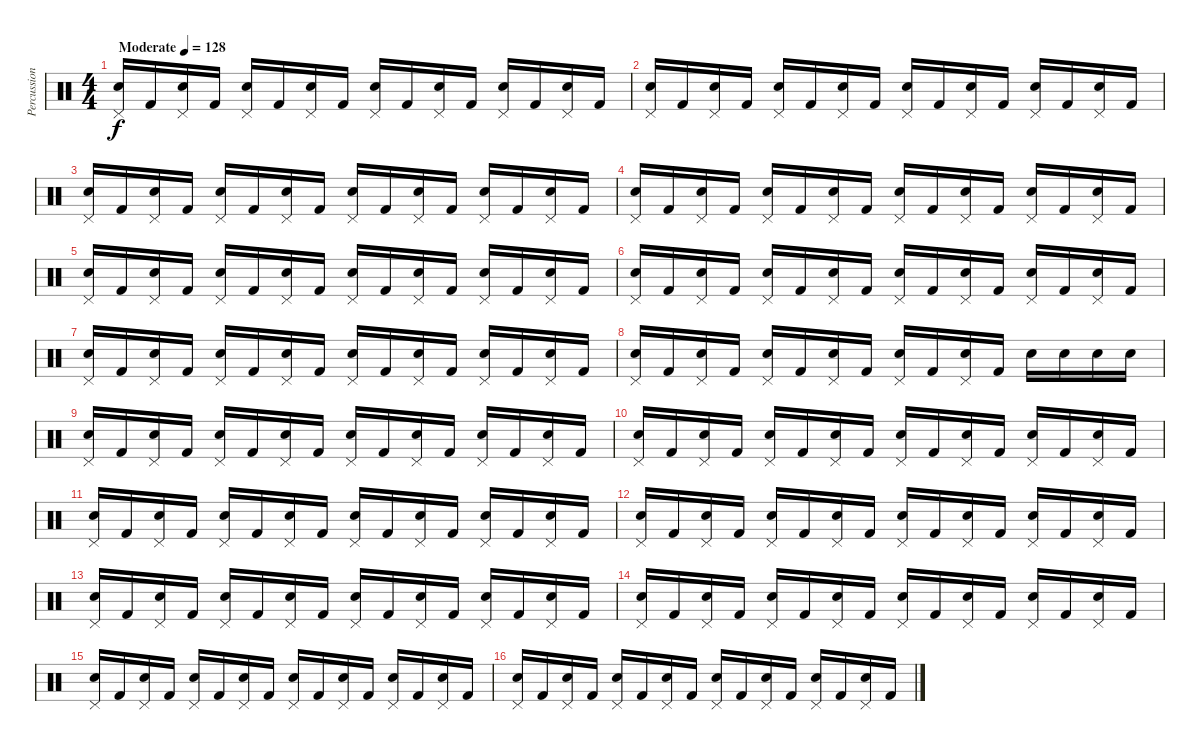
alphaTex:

\track ("Percussion" "Percussion") {instrument percussion}
\staff {score}
\articulation defaults
\ts (4 4)
\tempo (128 "Moderate")
\clef neutral
\ks c
("Pedal Hi-Hat (hit)" "Electric Snare (hit)").16{dy f} "Kick (hit) 2".16 ("Pedal Hi-Hat (hit)" "Electric Snare (hit)").16 "Kick (hit) 2".16 ("Pedal Hi-Hat (hit)" "Electric Snare (hit)").16 "Kick (hit) 2".16 ("Pedal Hi-Hat (hit)" "Electric Snare (hit)").16 "Kick (hit) 2".16 ("Pedal Hi-Hat (hit)" "Electric Snare (hit)").16 "Kick (hit) 2".16 ("Pedal Hi-Hat (hit)" "Electric Snare (hit)").16 "Kick (hit) 2".16 ("Pedal Hi-Hat (hit)" "Electric Snare (hit)").16 "Kick (hit) 2".16 ("Pedal Hi-Hat (hit)" "Electric Snare (hit)").16 "Kick (hit) 2".16 |
("Pedal Hi-Hat (hit)" "Electric Snare (hit)").16 "Kick (hit) 2".16 ("Pedal Hi-Hat (hit)" "Electric Snare (hit)").16 "Kick (hit) 2".16 ("Pedal Hi-Hat (hit)" "Electric Snare (hit)").16 "Kick (hit) 2".16 ("Pedal Hi-Hat (hit)" "Electric Snare (hit)").16 "Kick (hit) 2".16 ("Pedal Hi-Hat (hit)" "Electric Snare (hit)").16 "Kick (hit) 2".16 ("Pedal Hi-Hat (hit)" "Electric Snare (hit)").16 "Kick (hit) 2".16 ("Pedal Hi-Hat (hit)" "Electric Snare (hit)").16 "Kick (hit) 2".16 ("Pedal Hi-Hat (hit)" "Electric Snare (hit)").16 "Kick (hit) 2".16 |
("Pedal Hi-Hat (hit)" "Electric Snare (hit)").16 "Kick (hit) 2".16 ("Pedal Hi-Hat (hit)" "Electric Snare (hit)").16 "Kick (hit) 2".16 ("Pedal Hi-Hat (hit)" "Electric Snare (hit)").16 "Kick (hit) 2".16 ("Pedal Hi-Hat (hit)" "Electric Snare (hit)").16 "Kick (hit) 2".16 ("Pedal Hi-Hat (hit)" "Electric Snare (hit)").16 "Kick (hit) 2".16 ("Pedal Hi-Hat (hit)" "Electric Snare (hit)").16 "Kick (hit) 2".16 ("Pedal Hi-Hat (hit)" "Electric Snare (hit)").16 "Kick (hit) 2".16 ("Pedal Hi-Hat (hit)" "Electric Snare (hit)").16 "Kick (hit) 2".16 |
("Pedal Hi-Hat (hit)" "Electric Snare (hit)").16 "Kick (hit) 2".16 ("Pedal Hi-Hat (hit)" "Electric Snare (hit)").16 "Kick (hit) 2".16 ("Pedal Hi-Hat (hit)" "Electric Snare (hit)").16 "Kick (hit) 2".16 ("Pedal Hi-Hat (hit)" "Electric Snare (hit)").16 "Kick (hit) 2".16 ("Pedal Hi-Hat (hit)" "Electric Snare (hit)").16 "Kick (hit) 2".16 ("Pedal Hi-Hat (hit)" "Electric Snare (hit)").16 "Kick (hit) 2".16 ("Pedal Hi-Hat (hit)" "Electric Snare (hit)").16 "Kick (hit) 2".16 ("Pedal Hi-Hat (hit)" "Electric Snare (hit)").16 "Kick (hit) 2".16 |
("Pedal Hi-Hat (hit)" "Electric Snare (hit)").16 "Kick (hit) 2".16 ("Pedal Hi-Hat (hit)" "Electric Snare (hit)").16 "Kick (hit) 2".16 ("Pedal Hi-Hat (hit)" "Electric Snare (hit)").16 "Kick (hit) 2".16 ("Pedal Hi-Hat (hit)" "Electric Snare (hit)").16 "Kick (hit) 2".16 ("Pedal Hi-Hat (hit)" "Electric Snare (hit)").16 "Kick (hit) 2".16 ("Pedal Hi-Hat (hit)" "Electric Snare (hit)").16 "Kick (hit) 2".16 ("Pedal Hi-Hat (hit)" "Electric Snare (hit)").16 "Kick (hit) 2".16 ("Pedal Hi-Hat (hit)" "Electric Snare (hit)").16 "Kick (hit) 2".16 |
("Pedal Hi-Hat (hit)" "Electric Snare (hit)").16 "Kick (hit) 2".16 ("Pedal Hi-Hat (hit)" "Electric Snare (hit)").16 "Kick (hit) 2".16 ("Pedal Hi-Hat (hit)" "Electric Snare (hit)").16 "Kick (hit) 2".16 ("Pedal Hi-Hat (hit)" "Electric Snare (hit)").16 "Kick (hit) 2".16 ("Pedal Hi-Hat (hit)" "Electric Snare (hit)").16 "Kick (hit) 2".16 ("Pedal Hi-Hat (hit)" "Electric Snare (hit)").16 "Kick (hit) 2".16 ("Pedal Hi-Hat (hit)" "Electric Snare (hit)").16 "Kick (hit) 2".16 ("Pedal Hi-Hat (hit)" "Electric Snare (hit)").16 "Kick (hit) 2".16 |
("Pedal Hi-Hat (hit)" "Electric Snare (hit)").16 "Kick (hit) 2".16 ("Pedal Hi-Hat (hit)" "Electric Snare (hit)").16 "Kick (hit) 2".16 ("Pedal Hi-Hat (hit)" "Electric Snare (hit)").16 "Kick (hit) 2".16 ("Pedal Hi-Hat (hit)" "Electric Snare (hit)").16 "Kick (hit) 2".16 ("Pedal Hi-Hat (hit)" "Electric Snare (hit)").16 "Kick (hit) 2".16 ("Pedal Hi-Hat (hit)" "Electric Snare (hit)").16 "Kick (hit) 2".16 ("Pedal Hi-Hat (hit)" "Electric Snare (hit)").16 "Kick (hit) 2".16 ("Pedal Hi-Hat (hit)" "Electric Snare (hit)").16 "Kick (hit) 2".16 |
("Pedal Hi-Hat (hit)" "Electric Snare (hit)").16 "Kick (hit) 2".16 ("Pedal Hi-Hat (hit)" "Electric Snare (hit)").16 "Kick (hit) 2".16 ("Pedal Hi-Hat (hit)" "Electric Snare (hit)").16 "Kick (hit) 2".16 ("Pedal Hi-Hat (hit)" "Electric Snare (hit)").16 "Kick (hit) 2".16 ("Pedal Hi-Hat (hit)" "Electric Snare (hit)").16 "Kick (hit) 2".16 ("Pedal Hi-Hat (hit)" "Electric Snare (hit)").16 "Kick (hit) 2".16 "Electric Snare (hit)".16 "Electric Snare (hit)".16 "Electric Snare (hit)".16 "Electric Snare (hit)".16 |
("Pedal Hi-Hat (hit)" "Electric Snare (hit)").16 "Kick (hit) 2".16 ("Pedal Hi-Hat (hit)" "Electric Snare (hit)").16 "Kick (hit) 2".16 ("Pedal Hi-Hat (hit)" "Electric Snare (hit)").16 "Kick (hit) 2".16 ("Pedal Hi-Hat (hit)" "Electric Snare (hit)").16 "Kick (hit) 2".16 ("Pedal Hi-Hat (hit)" "Electric Snare (hit)").16 "Kick (hit) 2".16 ("Pedal Hi-Hat (hit)" "Electric Snare (hit)").16 "Kick (hit) 2".16 ("Pedal Hi-Hat (hit)" "Electric Snare (hit)").16 "Kick (hit) 2".16 ("Pedal Hi-Hat (hit)" "Electric Snare (hit)").16 "Kick (hit) 2".16 |
("Pedal Hi-Hat (hit)" "Electric Snare (hit)").16 "Kick (hit) 2".16 ("Pedal Hi-Hat (hit)" "Electric Snare (hit)").16 "Kick (hit) 2".16 ("Pedal Hi-Hat (hit)" "Electric Snare (hit)").16 "Kick (hit) 2".16 ("Pedal Hi-Hat (hit)" "Electric Snare (hit)").16 "Kick (hit) 2".16 ("Pedal Hi-Hat (hit)" "Electric Snare (hit)").16 "Kick (hit) 2".16 ("Pedal Hi-Hat (hit)" "Electric Snare (hit)").16 "Kick (hit) 2".16 ("Pedal Hi-Hat (hit)" "Electric Snare (hit)").16 "Kick (hit) 2".16 ("Pedal Hi-Hat (hit)" "Electric Snare (hit)").16 "Kick (hit) 2".16 |
("Pedal Hi-Hat (hit)" "Electric Snare (hit)").16 "Kick (hit) 2".16 ("Pedal Hi-Hat (hit)" "Electric Snare (hit)").16 "Kick (hit) 2".16 ("Pedal Hi-Hat (hit)" "Electric Snare (hit)").16 "Kick (hit) 2".16 ("Pedal Hi-Hat (hit)" "Electric Snare (hit)").16 "Kick (hit) 2".16 ("Pedal Hi-Hat (hit)" "Electric Snare (hit)").16 "Kick (hit) 2".16 ("Pedal Hi-Hat (hit)" "Electric Snare (hit)").16 "Kick (hit) 2".16 ("Pedal Hi-Hat (hit)" "Electric Snare (hit)").16 "Kick (hit) 2".16 ("Pedal Hi-Hat (hit)" "Electric Snare (hit)").16 "Kick (hit) 2".16 |
("Pedal Hi-Hat (hit)" "Electric Snare (hit)").16 "Kick (hit) 2".16 ("Pedal Hi-Hat (hit)" "Electric Snare (hit)").16 "Kick (hit) 2".16 ("Pedal Hi-Hat (hit)" "Electric Snare (hit)").16 "Kick (hit) 2".16 ("Pedal Hi-Hat (hit)" "Electric Snare (hit)").16 "Kick (hit) 2".16 ("Pedal Hi-Hat (hit)" "Electric Snare (hit)").16 "Kick (hit) 2".16 ("Pedal Hi-Hat (hit)" "Electric Snare (hit)").16 "Kick (hit) 2".16 ("Pedal Hi-Hat (hit)" "Electric Snare (hit)").16 "Kick (hit) 2".16 ("Pedal Hi-Hat (hit)" "Electric Snare (hit)").16 "Kick (hit) 2".16 |
("Pedal Hi-Hat (hit)" "Electric Snare (hit)").16 "Kick (hit) 2".16 ("Pedal Hi-Hat (hit)" "Electric Snare (hit)").16 "Kick (hit) 2".16 ("Pedal Hi-Hat (hit)" "Electric Snare (hit)").16 "Kick (hit) 2".16 ("Pedal Hi-Hat (hit)" "Electric Snare (hit)").16 "Kick (hit) 2".16 ("Pedal Hi-Hat (hit)" "Electric Snare (hit)").16 "Kick (hit) 2".16 ("Pedal Hi-Hat (hit)" "Electric Snare (hit)").16 "Kick (hit) 2".16 ("Pedal Hi-Hat (hit)" "Electric Snare (hit)").16 "Kick (hit) 2".16 ("Pedal Hi-Hat (hit)" "Electric Snare (hit)").16 "Kick (hit) 2".16 |
("Pedal Hi-Hat (hit)" "Electric Snare (hit)").16 "Kick (hit) 2".16 ("Pedal Hi-Hat (hit)" "Electric Snare (hit)").16 "Kick (hit) 2".16 ("Pedal Hi-Hat (hit)" "Electric Snare (hit)").16 "Kick (hit) 2".16 ("Pedal Hi-Hat (hit)" "Electric Snare (hit)").16 "Kick (hit) 2".16 ("Pedal Hi-Hat (hit)" "Electric Snare (hit)").16 "Kick (hit) 2".16 ("Pedal Hi-Hat (hit)" "Electric Snare (hit)").16 "Kick (hit) 2".16 ("Pedal Hi-Hat (hit)" "Electric Snare (hit)").16 "Kick (hit) 2".16 ("Pedal Hi-Hat (hit)" "Electric Snare (hit)").16 "Kick (hit) 2".16 |
("Pedal Hi-Hat (hit)" "Electric Snare (hit)").16 "Kick (hit) 2".16 ("Pedal Hi-Hat (hit)" "Electric Snare (hit)").16 "Kick (hit) 2".16 ("Pedal Hi-Hat (hit)" "Electric Snare (hit)").16 "Kick (hit) 2".16 ("Pedal Hi-Hat (hit)" "Electric Snare (hit)").16 "Kick (hit) 2".16 ("Pedal Hi-Hat (hit)" "Electric Snare (hit)").16 "Kick (hit) 2".16 ("Pedal Hi-Hat (hit)" "Electric Snare (hit)").16 "Kick (hit) 2".16 ("Pedal Hi-Hat (hit)" "Electric Snare (hit)").16 "Kick (hit) 2".16 ("Pedal Hi-Hat (hit)" "Electric Snare (hit)").16 "Kick (hit) 2".16 |
("Pedal Hi-Hat (hit)" "Electric Snare (hit)").16 "Kick (hit) 2".16 ("Pedal Hi-Hat (hit)" "Electric Snare (hit)").16 "Kick (hit) 2".16 ("Pedal Hi-Hat (hit)" "Electric Snare (hit)").16 "Kick (hit) 2".16 ("Pedal Hi-Hat (hit)" "Electric Snare (hit)").16 "Kick (hit) 2".16 ("Pedal Hi-Hat (hit)" "Electric Snare (hit)").16 "Kick (hit) 2".16 ("Pedal Hi-Hat (hit)" "Electric Snare (hit)").16 "Kick (hit) 2".16 ("Pedal Hi-Hat (hit)" "Electric Snare (hit)").16 "Kick (hit) 2".16 ("Pedal Hi-Hat (hit)" "Electric Snare (hit)").16 "Kick (hit) 2".16
